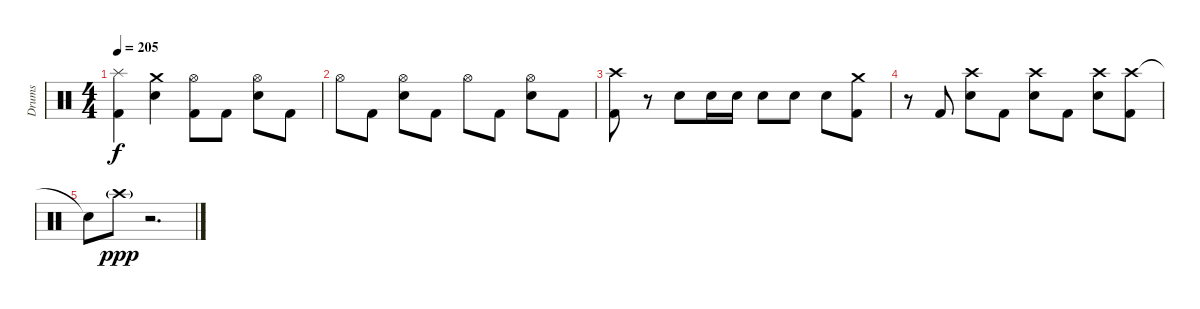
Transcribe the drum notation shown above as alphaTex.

\track ("Drums" "Drums") {instrument percussion}
\staff {score}
\articulation defaults
\ts (4 4)
\tempo 205
\clef neutral
\ks c
("Splash (hit)" "Kick (hit) 2").4{dy f} ("Crash medium (hit)" "Electric Snare (hit)").4 ("Hi-Hat (open)" "Kick (hit) 2").8 "Kick (hit) 2".8 ("Hi-Hat (open)" "Electric Snare (hit)").8 "Kick (hit) 2".8 |
"Hi-Hat (open)".8 "Kick (hit) 2".8 ("Hi-Hat (open)" "Electric Snare (hit)").8 "Kick (hit) 2".8 "Hi-Hat (open)".8 "Kick (hit) 2".8 ("Hi-Hat (open)" "Electric Snare (hit)").8 "Kick (hit) 2".8 |
("Crash high (hit)" "Kick (hit) 2").8 r.8 "Electric Snare (hit)".8 "Electric Snare (hit)".16 "Electric Snare (hit)".16 "Electric Snare (hit)".8 "Electric Snare (hit)".8 "Electric Snare (hit)".8 ("Crash medium (hit)" "Kick (hit) 2").8 |
r.8 "Kick (hit) 2".8 ("Crash high (hit)" "Electric Snare (hit)").8 "Kick (hit) 2".8 ("Crash high (hit)" "Electric Snare (hit)").8 "Kick (hit) 2".8 ("Crash high (hit)" "Electric Snare (hit)").8 ("Crash high (hit)" "Kick (hit) 2").8 |
"Snare (hit)"{t}.8 "Crash high (hit)"{g}.8{dy ppp} r.2{d}
